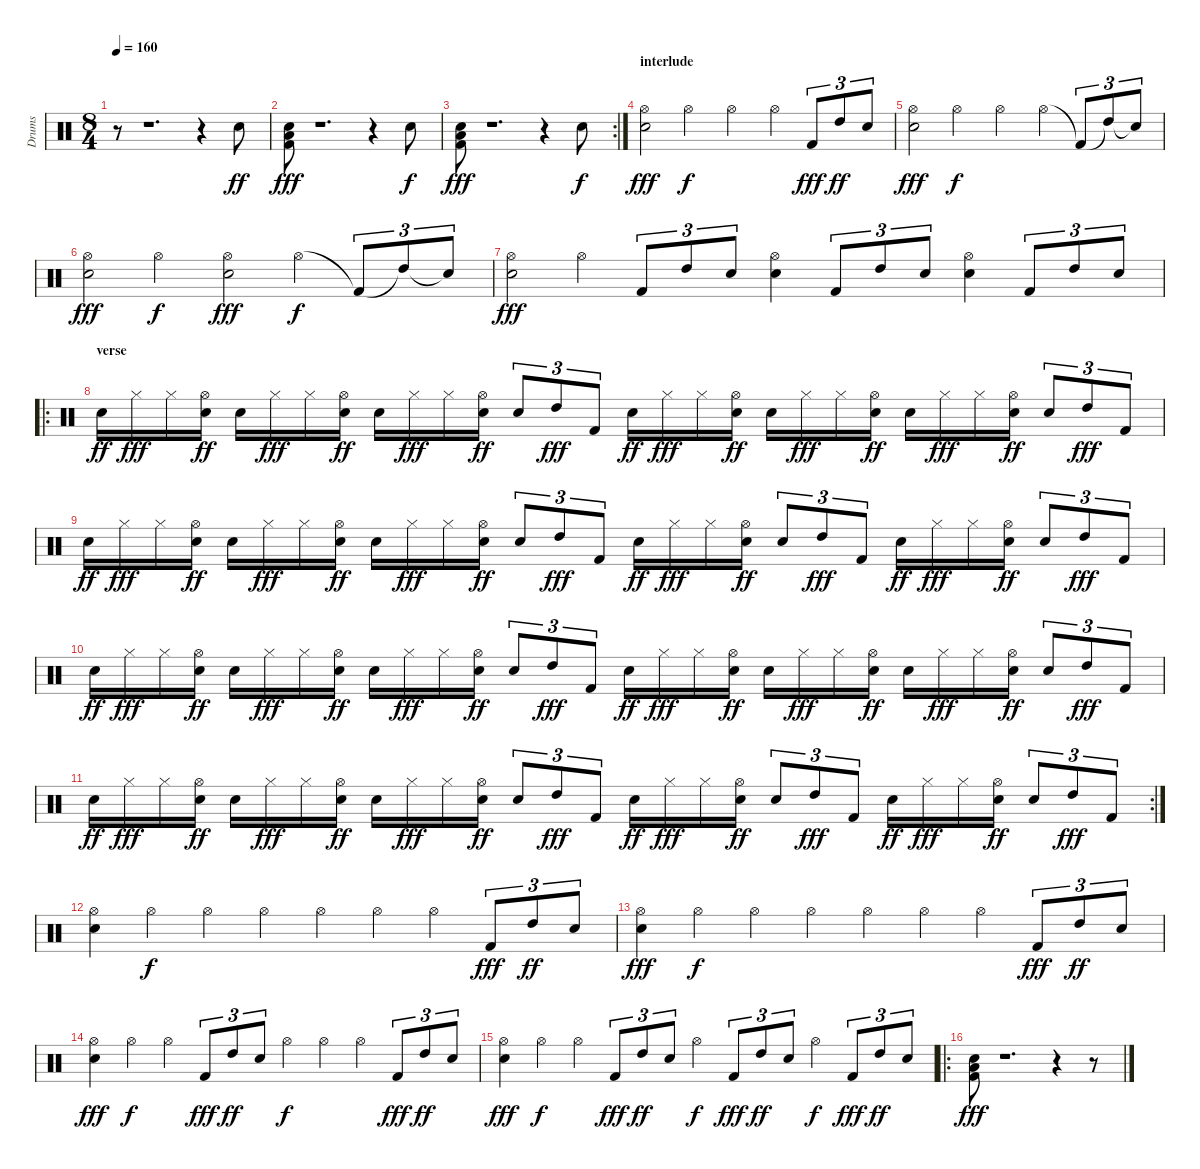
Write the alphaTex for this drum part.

\track ("Drums" "Drums") {instrument percussion}
\staff {score}
\articulation defaults
\ts (8 4)
\tempo 160
\clef neutral
\ks c
r.8{dy fff} r.1{d} r.4 "Electric Snare (hit)".8{dy ff} |
("Electric Snare (hit)" "Kick (hit) 2" "Low Tom (hit)").8{dy fff} r.1{d} r.4 "Electric Snare (hit)".8{dy f} |
\rc 2
("Electric Snare (hit)" "Kick (hit) 2" "Low Tom (hit)").8{dy fff} r.1{d} r.4 "Electric Snare (hit)".8{dy f} |
\section ("" "interlude")
("Electric Snare (hit)" "Hi-Hat (open)").2{dy fff} "Hi-Hat (open)".2{dy f} "Hi-Hat (open)".2 "Hi-Hat (open)".4 "Kick (hit) 2".8{tu (3 2) dy fff} "High Tom (hit)".8{tu (3 2) dy ff} "Electric Snare (hit)".8{tu (3 2)} |
("Electric Snare (hit)" "Hi-Hat (open)").2{dy fff} "Hi-Hat (open)".2{dy f} "Hi-Hat (open)".2 "Hi-Hat (open)".4 "Kick (hit) 2"{t}.8{tu (3 2)} "High Tom (hit)"{t}.8{tu (3 2)} "Electric Snare (hit)"{t}.8{tu (3 2)} |
("Electric Snare (hit)" "Hi-Hat (open)").2{dy fff} "Hi-Hat (open)".2{dy f} ("Electric Snare (hit)" "Hi-Hat (open)").2{dy fff} "Hi-Hat (open)".4{dy f} "Kick (hit) 2"{t}.8{tu (3 2)} "High Tom (hit)"{t}.8{tu (3 2)} "Electric Snare (hit)"{t}.8{tu (3 2)} |
("Electric Snare (hit)" "Hi-Hat (open)").2{dy fff} "Hi-Hat (open)".4 "Kick (hit) 2".8{tu (3 2)} "High Tom (hit)".8{tu (3 2)} "Electric Snare (hit)".8{tu (3 2)} ("Electric Snare (hit)" "Hi-Hat (open)").4 "Kick (hit) 2".8{tu (3 2)} "High Tom (hit)".8{tu (3 2)} "Electric Snare (hit)".8{tu (3 2)} ("Electric Snare (hit)" "Hi-Hat (open)").4 "Kick (hit) 2".8{tu (3 2)} "High Tom (hit)".8{tu (3 2)} "Electric Snare (hit)".8{tu (3 2)} |
\ro
\section ("" "verse")
"Electric Snare (hit)".16{dy ff} "Hi-Hat (closed)".16{dy fff} "Hi-Hat (closed)".16 ("Electric Snare (hit)" "Hi-Hat (open)").16{dy ff} "Electric Snare (hit)".16 "Hi-Hat (closed)".16{dy fff} "Hi-Hat (closed)".16 ("Electric Snare (hit)" "Hi-Hat (open)").16{dy ff} "Electric Snare (hit)".16 "Hi-Hat (closed)".16{dy fff} "Hi-Hat (closed)".16 ("Electric Snare (hit)" "Hi-Hat (open)").16{dy ff} "Electric Snare (hit)".8{tu (3 2)} "High Tom (hit)".8{tu (3 2) dy fff} "Kick (hit) 2".8{tu (3 2)} "Electric Snare (hit)".16{dy ff} "Hi-Hat (closed)".16{dy fff} "Hi-Hat (closed)".16 ("Electric Snare (hit)" "Hi-Hat (open)").16{dy ff} "Electric Snare (hit)".16 "Hi-Hat (closed)".16{dy fff} "Hi-Hat (closed)".16 ("Electric Snare (hit)" "Hi-Hat (open)").16{dy ff} "Electric Snare (hit)".16 "Hi-Hat (closed)".16{dy fff} "Hi-Hat (closed)".16 ("Electric Snare (hit)" "Hi-Hat (open)").16{dy ff} "Electric Snare (hit)".8{tu (3 2)} "High Tom (hit)".8{tu (3 2) dy fff} "Kick (hit) 2".8{tu (3 2)} |
"Electric Snare (hit)".16{dy ff} "Hi-Hat (closed)".16{dy fff} "Hi-Hat (closed)".16 ("Electric Snare (hit)" "Hi-Hat (open)").16{dy ff} "Electric Snare (hit)".16 "Hi-Hat (closed)".16{dy fff} "Hi-Hat (closed)".16 ("Electric Snare (hit)" "Hi-Hat (open)").16{dy ff} "Electric Snare (hit)".16 "Hi-Hat (closed)".16{dy fff} "Hi-Hat (closed)".16 ("Electric Snare (hit)" "Hi-Hat (open)").16{dy ff} "Electric Snare (hit)".8{tu (3 2)} "High Tom (hit)".8{tu (3 2) dy fff} "Kick (hit) 2".8{tu (3 2)} "Electric Snare (hit)".16{dy ff} "Hi-Hat (closed)".16{dy fff} "Hi-Hat (closed)".16 ("Electric Snare (hit)" "Hi-Hat (open)").16{dy ff} "Electric Snare (hit)".8{tu (3 2)} "High Tom (hit)".8{tu (3 2) dy fff} "Kick (hit) 2".8{tu (3 2)} "Electric Snare (hit)".16{dy ff} "Hi-Hat (closed)".16{dy fff} "Hi-Hat (closed)".16 ("Electric Snare (hit)" "Hi-Hat (open)").16{dy ff} "Electric Snare (hit)".8{tu (3 2)} "High Tom (hit)".8{tu (3 2) dy fff} "Kick (hit) 2".8{tu (3 2)} |
"Electric Snare (hit)".16{dy ff} "Hi-Hat (closed)".16{dy fff} "Hi-Hat (closed)".16 ("Electric Snare (hit)" "Hi-Hat (open)").16{dy ff} "Electric Snare (hit)".16 "Hi-Hat (closed)".16{dy fff} "Hi-Hat (closed)".16 ("Electric Snare (hit)" "Hi-Hat (open)").16{dy ff} "Electric Snare (hit)".16 "Hi-Hat (closed)".16{dy fff} "Hi-Hat (closed)".16 ("Electric Snare (hit)" "Hi-Hat (open)").16{dy ff} "Electric Snare (hit)".8{tu (3 2)} "High Tom (hit)".8{tu (3 2) dy fff} "Kick (hit) 2".8{tu (3 2)} "Electric Snare (hit)".16{dy ff} "Hi-Hat (closed)".16{dy fff} "Hi-Hat (closed)".16 ("Electric Snare (hit)" "Hi-Hat (open)").16{dy ff} "Electric Snare (hit)".16 "Hi-Hat (closed)".16{dy fff} "Hi-Hat (closed)".16 ("Electric Snare (hit)" "Hi-Hat (open)").16{dy ff} "Electric Snare (hit)".16 "Hi-Hat (closed)".16{dy fff} "Hi-Hat (closed)".16 ("Electric Snare (hit)" "Hi-Hat (open)").16{dy ff} "Electric Snare (hit)".8{tu (3 2)} "High Tom (hit)".8{tu (3 2) dy fff} "Kick (hit) 2".8{tu (3 2)} |
\rc 2 "Electric Snare (hit)".16{dy ff} "Hi-Hat (closed)".16{dy fff} "Hi-Hat (closed)".16
("Electric Snare (hit)" "Hi-Hat (open)").16{dy ff} "Electric Snare (hit)".16 "Hi-Hat (closed)".16{dy fff} "Hi-Hat (closed)".16 ("Electric Snare (hit)" "Hi-Hat (open)").16{dy ff} "Electric Snare (hit)".16 "Hi-Hat (closed)".16{dy fff} "Hi-Hat (closed)".16 ("Electric Snare (hit)" "Hi-Hat (open)").16{dy ff} "Electric Snare (hit)".8{tu (3 2)} "High Tom (hit)".8{tu (3 2) dy fff} "Kick (hit) 2".8{tu (3 2)} "Electric Snare (hit)".16{dy ff} "Hi-Hat (closed)".16{dy fff} "Hi-Hat (closed)".16 ("Electric Snare (hit)" "Hi-Hat (open)").16{dy ff} "Electric Snare (hit)".8{tu (3 2)} "High Tom (hit)".8{tu (3 2) dy fff} "Kick (hit) 2".8{tu (3 2)} "Electric Snare (hit)".16{dy ff} "Hi-Hat (closed)".16{dy fff} "Hi-Hat (closed)".16 ("Electric Snare (hit)" "Hi-Hat (open)").16{dy ff} "Electric Snare (hit)".8{tu (3 2)} "High Tom (hit)".8{tu (3 2) dy fff} "Kick (hit) 2".8{tu (3 2)} |
("Electric Snare (hit)" "Hi-Hat (open)").4 "Hi-Hat (open)".4{dy f} "Hi-Hat (open)".4 "Hi-Hat (open)".4 "Hi-Hat (open)".4 "Hi-Hat (open)".4 "Hi-Hat (open)".4 "Kick (hit) 2".8{tu (3 2) dy fff} "High Tom (hit)".8{tu (3 2) dy ff} "Electric Snare (hit)".8{tu (3 2)} |
("Electric Snare (hit)" "Hi-Hat (open)").4{dy fff} "Hi-Hat (open)".4{dy f} "Hi-Hat (open)".4 "Hi-Hat (open)".4 "Hi-Hat (open)".4 "Hi-Hat (open)".4 "Hi-Hat (open)".4 "Kick (hit) 2".8{tu (3 2) dy fff} "High Tom (hit)".8{tu (3 2) dy ff} "Electric Snare (hit)".8{tu (3 2)} |
("Electric Snare (hit)" "Hi-Hat (open)").4{dy fff} "Hi-Hat (open)".4{dy f} "Hi-Hat (open)".4 "Kick (hit) 2".8{tu (3 2) dy fff} "High Tom (hit)".8{tu (3 2) dy ff} "Electric Snare (hit)".8{tu (3 2)} "Hi-Hat (open)".4{dy f} "Hi-Hat (open)".4 "Hi-Hat (open)".4 "Kick (hit) 2".8{tu (3 2) dy fff} "High Tom (hit)".8{tu (3 2) dy ff} "Electric Snare (hit)".8{tu (3 2)} |
("Electric Snare (hit)" "Hi-Hat (open)").4{dy fff} "Hi-Hat (open)".4{dy f} "Hi-Hat (open)".4 "Kick (hit) 2".8{tu (3 2) dy fff} "High Tom (hit)".8{tu (3 2) dy ff} "Electric Snare (hit)".8{tu (3 2)} "Hi-Hat (open)".4{dy f} "Kick (hit) 2".8{tu (3 2) dy fff} "High Tom (hit)".8{tu (3 2) dy ff} "Electric Snare (hit)".8{tu (3 2)} "Hi-Hat (open)".4{dy f} "Kick (hit) 2".8{tu (3 2) dy fff} "High Tom (hit)".8{tu (3 2) dy ff} "Electric Snare (hit)".8{tu (3 2)} |
\ro
("Electric Snare (hit)" "Kick (hit) 2" "Low Tom (hit)").8{dy fff} r.1{d} r.4 r.8
